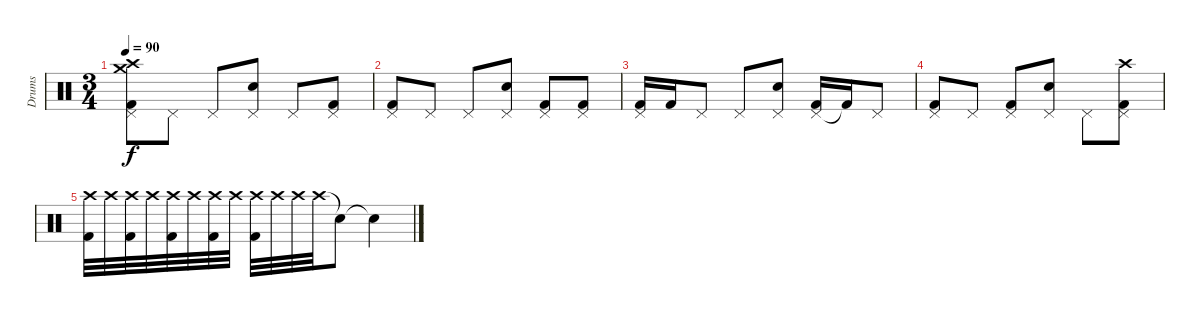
\track ("Drums" "Drums") {instrument percussion}
\staff {score}
\articulation defaults
\ts (3 4)
\tempo 90
\clef neutral
\ks c
("Crash medium (hit)" "Crash high (hit)" "Pedal Hi-Hat (hit)" "Kick (hit) 2").8{dy f} "Pedal Hi-Hat (hit)".8 "Pedal Hi-Hat (hit)".8 ("Pedal Hi-Hat (hit)" "Electric Snare (hit)").8 "Pedal Hi-Hat (hit)".8 ("Pedal Hi-Hat (hit)" "Kick (hit) 2").8 |
("Pedal Hi-Hat (hit)" "Kick (hit) 2").8 "Pedal Hi-Hat (hit)".8 "Pedal Hi-Hat (hit)".8 ("Pedal Hi-Hat (hit)" "Electric Snare (hit)").8 ("Pedal Hi-Hat (hit)" "Kick (hit) 2").8 ("Pedal Hi-Hat (hit)" "Kick (hit) 2").8 |
("Pedal Hi-Hat (hit)" "Kick (hit) 2").16 "Kick (hit) 2".16 "Pedal Hi-Hat (hit)".8 "Pedal Hi-Hat (hit)".8 ("Pedal Hi-Hat (hit)" "Electric Snare (hit)").8 ("Pedal Hi-Hat (hit)" "Kick (hit) 2").16 "Kick (hit) 2"{t}.16 "Pedal Hi-Hat (hit)".8 |
("Pedal Hi-Hat (hit)" "Kick (hit) 2").8 "Pedal Hi-Hat (hit)".8 ("Pedal Hi-Hat (hit)" "Kick (hit) 2").8 ("Pedal Hi-Hat (hit)" "Electric Snare (hit)").8 "Pedal Hi-Hat (hit)".8 ("Crash high (hit)" "Pedal Hi-Hat (hit)" "Kick (hit) 2").8 |
("Crash high (hit)" "Kick (hit) 2").32 "Crash high (hit)".32 ("Crash high (hit)" "Kick (hit) 2").32 "Crash high (hit)".32 ("Crash high (hit)" "Kick (hit) 2").32 "Crash high (hit)".32 ("Crash high (hit)" "Kick (hit) 2").32 "Crash high (hit)".32 ("Crash high (hit)" "Kick (hit) 2").32 "Crash high (hit)".32 "Crash high (hit)".32 "Crash high (hit)".32 "Snare (hit)"{t}.8 "Snare (hit)"{t}.4
